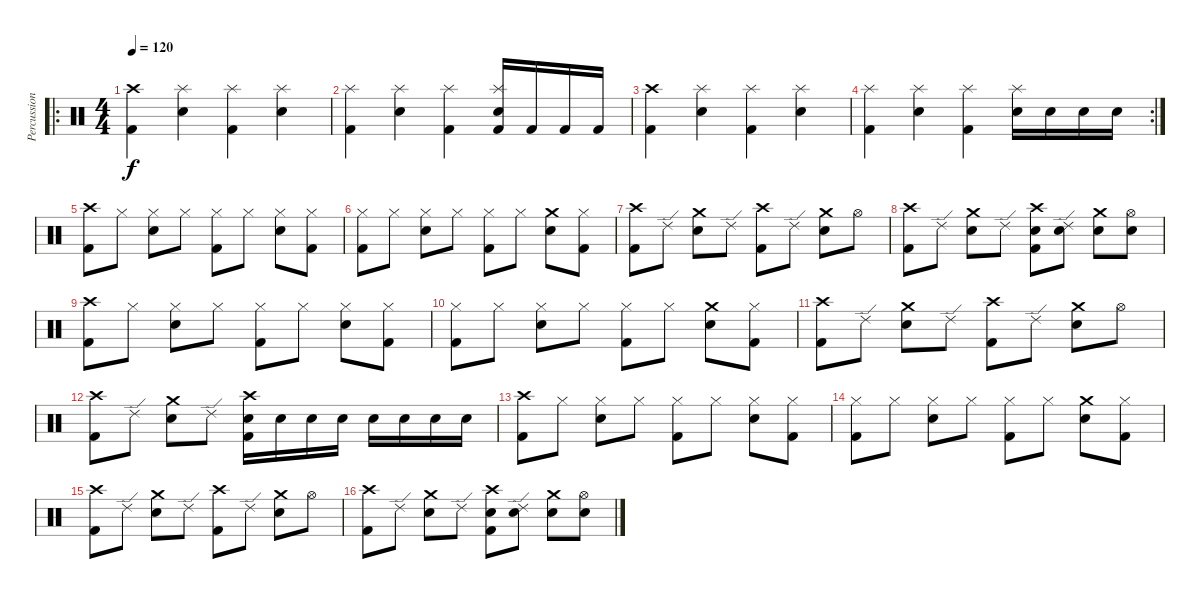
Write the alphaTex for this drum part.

\track ("Percussion" "Percussion") {instrument percussion}
\staff {score}
\articulation defaults
\ro
\ts (4 4)
\tempo 120
\clef neutral
\ks c
("Crash high (hit)" "Kick (hit) 2").4{dy f} ("Splash (hit)" "Electric Snare (hit)").4 ("Splash (hit)" "Kick (hit) 2").4 ("Splash (hit)" "Electric Snare (hit)").4 |
("Splash (hit)" "Kick (hit) 2").4 ("Splash (hit)" "Electric Snare (hit)").4 ("Splash (hit)" "Kick (hit) 2").4 ("Splash (hit)" "Electric Snare (hit)" "Kick (hit) 2").16 "Kick (hit) 2".16 "Kick (hit) 2".16 "Kick (hit) 2".16 |
("Crash high (hit)" "Kick (hit) 2").4 ("Splash (hit)" "Electric Snare (hit)").4 ("Splash (hit)" "Kick (hit) 2").4 ("Splash (hit)" "Electric Snare (hit)").4 |
\rc 2
("Splash (hit)" "Kick (hit) 2").4 ("Splash (hit)" "Electric Snare (hit)").4 ("Splash (hit)" "Kick (hit) 2").4 ("Splash (hit)" "Electric Snare (hit)").16 "Electric Snare (hit)".16 "Electric Snare (hit)".16 "Electric Snare (hit)".16 |
("Crash high (hit)" "Kick (hit) 2").8 "Hi-Hat (closed)".8 ("Hi-Hat (closed)" "Electric Snare (hit)").8 "Hi-Hat (closed)".8 ("Hi-Hat (closed)" "Kick (hit) 2").8 "Hi-Hat (closed)".8 ("Hi-Hat (closed)" "Electric Snare (hit)").8 ("Hi-Hat (closed)" "Kick (hit) 2").8 |
("Hi-Hat (closed)" "Kick (hit) 2").8 "Hi-Hat (closed)".8 ("Hi-Hat (closed)" "Electric Snare (hit)").8 "Hi-Hat (closed)".8 ("Hi-Hat (closed)" "Kick (hit) 2").8 "Hi-Hat (closed)".8 ("Crash medium (hit)" "Electric Snare (hit)").8 ("Hi-Hat (closed)" "Kick (hit) 2").8 |
("Crash high (hit)" "Kick (hit) 2").8 "Ride (edge) 2".8 ("Crash medium (hit)" "Electric Snare (hit)").8 "Ride (edge) 2".8 ("Crash high (hit)" "Kick (hit) 2").8 "Ride (edge) 2".8 ("Crash medium (hit)" "Electric Snare (hit)").8 "Hi-Hat (open)".8 |
("Crash high (hit)" "Kick (hit) 2").8 "Ride (edge) 2".8 ("Crash medium (hit)" "Electric Snare (hit)").8 "Ride (edge) 2".8 ("Crash high (hit)" "Electric Snare (hit)" "Kick (hit) 2").8 ("Ride (edge) 2" "Electric Snare (hit)").8 ("Crash medium (hit)" "Electric Snare (hit)").8 ("Hi-Hat (open)" "Electric Snare (hit)").8 |
("Crash high (hit)" "Kick (hit) 2").8 "Hi-Hat (closed)".8 ("Hi-Hat (closed)" "Electric Snare (hit)").8 "Hi-Hat (closed)".8 ("Hi-Hat (closed)" "Kick (hit) 2").8 "Hi-Hat (closed)".8 ("Hi-Hat (closed)" "Electric Snare (hit)").8 ("Hi-Hat (closed)" "Kick (hit) 2").8 |
("Hi-Hat (closed)" "Kick (hit) 2").8 "Hi-Hat (closed)".8 ("Hi-Hat (closed)" "Electric Snare (hit)").8 "Hi-Hat (closed)".8 ("Hi-Hat (closed)" "Kick (hit) 2").8 "Hi-Hat (closed)".8 ("Crash medium (hit)" "Electric Snare (hit)").8 ("Hi-Hat (closed)" "Kick (hit) 2").8 |
("Crash high (hit)" "Kick (hit) 2").8 "Ride (edge) 2".8 ("Crash medium (hit)" "Electric Snare (hit)").8 "Ride (edge) 2".8 ("Crash high (hit)" "Kick (hit) 2").8 "Ride (edge) 2".8 ("Crash medium (hit)" "Electric Snare (hit)").8 "Hi-Hat (open)".8 |
("Crash high (hit)" "Kick (hit) 2").8 "Ride (edge) 2".8 ("Crash medium (hit)" "Electric Snare (hit)").8 "Ride (edge) 2".8 ("Crash high (hit)" "Electric Snare (hit)" "Kick (hit) 2").16 "Electric Snare (hit)".16 "Electric Snare (hit)".16 "Electric Snare (hit)".16 "Electric Snare (hit)".16 "Electric Snare (hit)".16 "Electric Snare (hit)".16 "Electric Snare (hit)".16 |
("Crash high (hit)" "Kick (hit) 2").8 "Hi-Hat (closed)".8 ("Hi-Hat (closed)" "Electric Snare (hit)").8 "Hi-Hat (closed)".8 ("Hi-Hat (closed)" "Kick (hit) 2").8 "Hi-Hat (closed)".8 ("Hi-Hat (closed)" "Electric Snare (hit)").8 ("Hi-Hat (closed)" "Kick (hit) 2").8 |
("Hi-Hat (closed)" "Kick (hit) 2").8 "Hi-Hat (closed)".8 ("Hi-Hat (closed)" "Electric Snare (hit)").8 "Hi-Hat (closed)".8 ("Hi-Hat (closed)" "Kick (hit) 2").8 "Hi-Hat (closed)".8 ("Crash medium (hit)" "Electric Snare (hit)").8 ("Hi-Hat (closed)" "Kick (hit) 2").8 |
("Crash high (hit)" "Kick (hit) 2").8 "Ride (edge) 2".8 ("Crash medium (hit)" "Electric Snare (hit)").8 "Ride (edge) 2".8 ("Crash high (hit)" "Kick (hit) 2").8 "Ride (edge) 2".8 ("Crash medium (hit)" "Electric Snare (hit)").8 "Hi-Hat (open)".8 |
("Crash high (hit)" "Kick (hit) 2").8 "Ride (edge) 2".8 ("Crash medium (hit)" "Electric Snare (hit)").8 "Ride (edge) 2".8 ("Crash high (hit)" "Electric Snare (hit)" "Kick (hit) 2").8 ("Ride (edge) 2" "Electric Snare (hit)").8 ("Crash medium (hit)" "Electric Snare (hit)").8 ("Hi-Hat (open)" "Electric Snare (hit)").8
